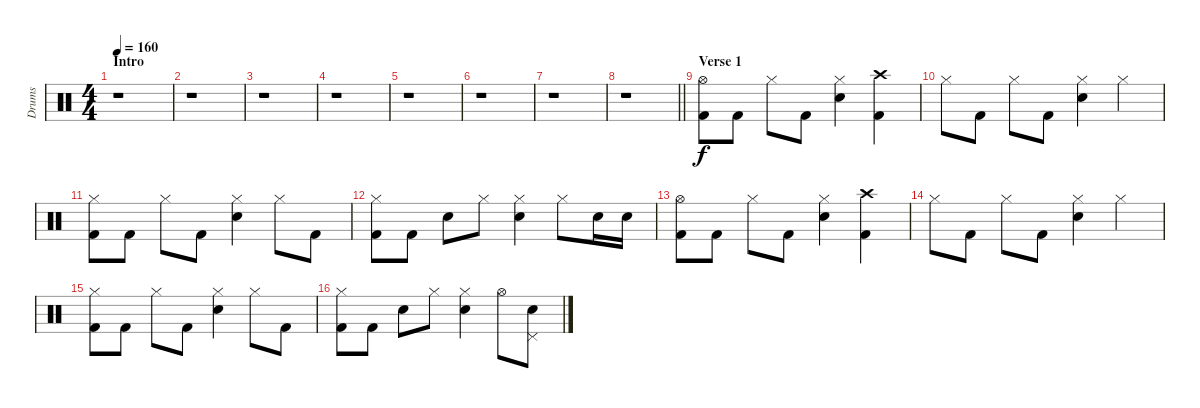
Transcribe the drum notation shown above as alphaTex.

\track ("Drums" "Drums") {instrument percussion}
\staff {score}
\articulation defaults
\ts (4 4)
\section ("" "Intro")
\tempo 160
\clef neutral
\ks c
r.1{dy f} |
r.1 |
r.1 |
r.1 |
r.1 |
r.1 |
r.1 |
\barLineRight lightlight
r.1 |
\section ("" "Verse 1")
("Kick (hit) 2" "Hi-Hat (open)").8 "Kick (hit) 2".8 "Hi-Hat (closed)".8 "Kick (hit) 2".8 ("Electric Snare (hit)" "Hi-Hat (closed)").4 ("Kick (hit) 2" "Crash high (hit)").4 |
"Hi-Hat (closed)".8 "Kick (hit) 2".8 "Hi-Hat (closed)".8 "Kick (hit) 2".8 ("Electric Snare (hit)" "Hi-Hat (closed)").4 "Hi-Hat (closed)".4 |
("Kick (hit) 2" "Hi-Hat (closed)").8 "Kick (hit) 2".8 "Hi-Hat (closed)".8 "Kick (hit) 2".8 ("Electric Snare (hit)" "Hi-Hat (closed)").4 "Hi-Hat (closed)".8 "Kick (hit) 2".8 |
("Kick (hit) 2" "Hi-Hat (closed)").8 "Kick (hit) 2".8 "Electric Snare (hit)".8 "Hi-Hat (closed)".8 ("Electric Snare (hit)" "Hi-Hat (closed)").4 "Hi-Hat (closed)".8 "Electric Snare (hit)".16 "Electric Snare (hit)".16 |
("Kick (hit) 2" "Hi-Hat (open)").8 "Kick (hit) 2".8 "Hi-Hat (closed)".8 "Kick (hit) 2".8 ("Electric Snare (hit)" "Hi-Hat (closed)").4 ("Kick (hit) 2" "Crash high (hit)").4 |
"Hi-Hat (closed)".8 "Kick (hit) 2".8 "Hi-Hat (closed)".8 "Kick (hit) 2".8 ("Electric Snare (hit)" "Hi-Hat (closed)").4 "Hi-Hat (closed)".4 |
("Kick (hit) 2" "Hi-Hat (closed)").8 "Kick (hit) 2".8 "Hi-Hat (closed)".8 "Kick (hit) 2".8 ("Electric Snare (hit)" "Hi-Hat (closed)").4 "Hi-Hat (closed)".8 "Kick (hit) 2".8 |
("Kick (hit) 2" "Hi-Hat (closed)").8 "Kick (hit) 2".8 "Electric Snare (hit)".8 "Hi-Hat (closed)".8 ("Electric Snare (hit)" "Hi-Hat (closed)").4 "Hi-Hat (open)".8 ("Electric Snare (hit)" "Pedal Hi-Hat (hit)").8
